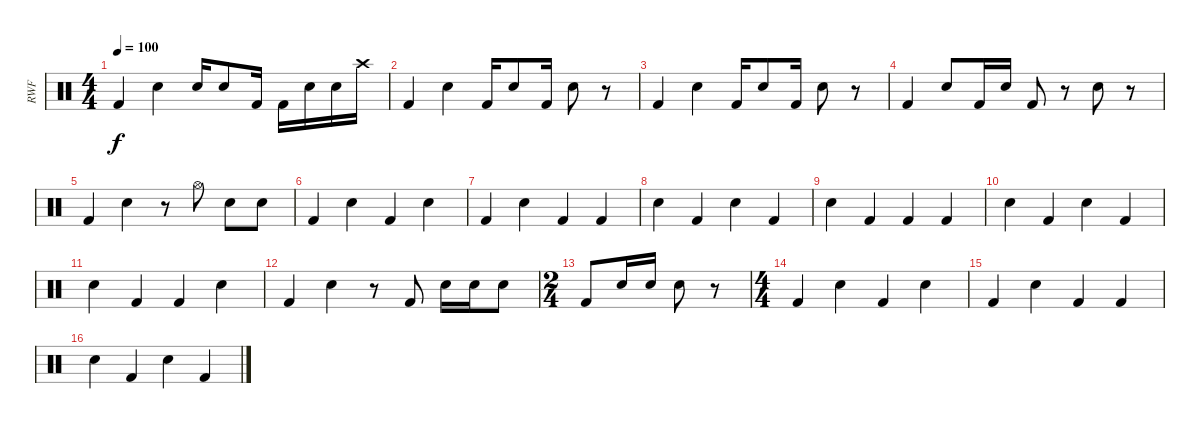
\track ("RWF" "RWF") {instrument percussion}
\staff {score}
\articulation defaults
\ts (4 4)
\tempo 100
\clef neutral
\ks c "Kick (hit) 2".4{dy f} "Electric Snare (hit)".4 "Electric Snare (hit)".16 "Electric Snare (hit)".8 "Kick (hit) 2".16 "Kick (hit) 2".16 "Electric Snare (hit)".16 "Electric Snare (hit)".16 "Crash high (hit)".16
|
"Kick (hit) 2".4 "Electric Snare (hit)".4 "Kick (hit) 2".16 "Electric Snare (hit)".8 "Kick (hit) 2".16 "Electric Snare (hit)".8 r.8 |
"Kick (hit) 2".4 "Electric Snare (hit)".4 "Kick (hit) 2".16 "Electric Snare (hit)".8 "Kick (hit) 2".16 "Electric Snare (hit)".8 r.8 |
"Kick (hit) 2".4 "Electric Snare (hit)".8 "Kick (hit) 2".16 "Electric Snare (hit)".16 "Kick (hit) 2".8 r.8 "Electric Snare (hit)".8 r.8 |
"Kick (hit) 2".4 "Electric Snare (hit)".4 r.8 "Hi-Hat (open)".8 "Electric Snare (hit)".8 "Electric Snare (hit)".8 |
"Kick (hit) 2".4 "Electric Snare (hit)".4 "Kick (hit) 2".4 "Electric Snare (hit)".4 |
"Kick (hit) 2".4 "Electric Snare (hit)".4 "Kick (hit) 2".4 "Kick (hit) 2".4 |
"Electric Snare (hit)".4 "Kick (hit) 2".4 "Electric Snare (hit)".4 "Kick (hit) 2".4 |
"Electric Snare (hit)".4 "Kick (hit) 2".4 "Kick (hit) 2".4 "Kick (hit) 2".4 |
"Electric Snare (hit)".4 "Kick (hit) 2".4 "Electric Snare (hit)".4 "Kick (hit) 2".4 |
"Electric Snare (hit)".4 "Kick (hit) 2".4 "Kick (hit) 2".4 "Electric Snare (hit)".4 |
"Kick (hit) 2".4 "Electric Snare (hit)".4 r.8 "Kick (hit) 2".8 "Electric Snare (hit)".16 "Electric Snare (hit)".16 "Electric Snare (hit)".8 |
\ts (2 4)
"Kick (hit) 2".8 "Electric Snare (hit)".16 "Electric Snare (hit)".16 "Electric Snare (hit)".8 r.8 |
\ts (4 4)
"Kick (hit) 2".4 "Electric Snare (hit)".4 "Kick (hit) 2".4 "Electric Snare (hit)".4 |
"Kick (hit) 2".4 "Electric Snare (hit)".4 "Kick (hit) 2".4 "Kick (hit) 2".4 |
"Electric Snare (hit)".4 "Kick (hit) 2".4 "Electric Snare (hit)".4 "Kick (hit) 2".4
